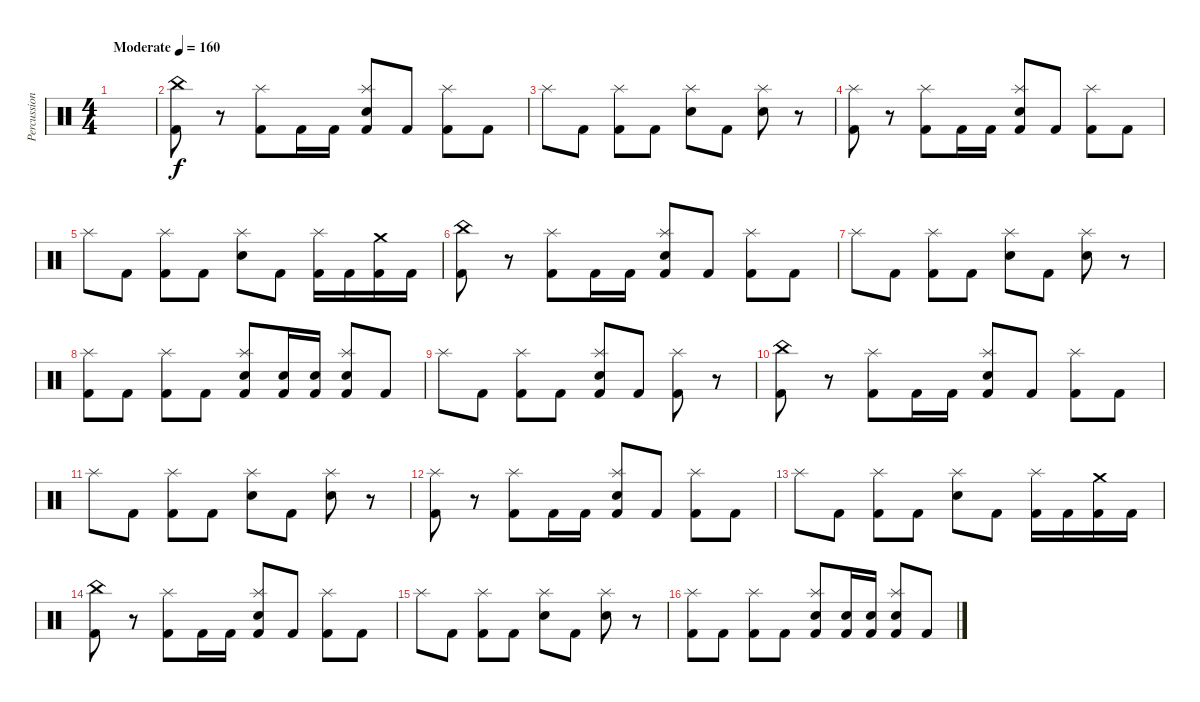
\track ("Percussion" "Percussion") {instrument percussion}
\staff {score}
\articulation defaults
\ts (4 4)
\tempo (160 "Moderate")
\clef neutral
\ks c
|
("China (hit)" "Kick (hit) 2").8 r.8 ("Splash (hit)" "Kick (hit) 2").8 "Kick (hit) 2".16 "Kick (hit) 2".16 ("Splash (hit)" "Electric Snare (hit)" "Kick (hit) 2").8 "Kick (hit) 2".8 ("Splash (hit)" "Kick (hit) 2").8 "Kick (hit) 2".8 |
"Splash (hit)".8 "Kick (hit) 2".8 ("Splash (hit)" "Kick (hit) 2").8 "Kick (hit) 2".8 ("Splash (hit)" "Electric Snare (hit)").8 "Kick (hit) 2".8 ("Splash (hit)" "Electric Snare (hit)").8 r.8 |
("Splash (hit)" "Kick (hit) 2").8 r.8 ("Splash (hit)" "Kick (hit) 2").8 "Kick (hit) 2".16 "Kick (hit) 2".16 ("Splash (hit)" "Electric Snare (hit)" "Kick (hit) 2").8 "Kick (hit) 2".8 ("Splash (hit)" "Kick (hit) 2").8 "Kick (hit) 2".8 |
"Splash (hit)".8 "Kick (hit) 2".8 ("Splash (hit)" "Kick (hit) 2").8 "Kick (hit) 2".8 ("Splash (hit)" "Electric Snare (hit)").8 "Kick (hit) 2".8 ("Splash (hit)" "Kick (hit) 2").16 "Kick (hit) 2".16 ("Crash medium (hit)" "Kick (hit) 2").16 "Kick (hit) 2".16 |
("China (hit)" "Kick (hit) 2").8 r.8 ("Splash (hit)" "Kick (hit) 2").8 "Kick (hit) 2".16 "Kick (hit) 2".16 ("Splash (hit)" "Electric Snare (hit)" "Kick (hit) 2").8 "Kick (hit) 2".8 ("Splash (hit)" "Kick (hit) 2").8 "Kick (hit) 2".8 |
"Splash (hit)".8 "Kick (hit) 2".8 ("Splash (hit)" "Kick (hit) 2").8 "Kick (hit) 2".8 ("Splash (hit)" "Electric Snare (hit)").8 "Kick (hit) 2".8 ("Splash (hit)" "Electric Snare (hit)").8 r.8 |
("Splash (hit)" "Kick (hit) 2").8 "Kick (hit) 2".8 ("Splash (hit)" "Kick (hit) 2").8 "Kick (hit) 2".8 ("Splash (hit)" "Electric Snare (hit)" "Kick (hit) 2").8 ("Electric Snare (hit)" "Kick (hit) 2").16 ("Electric Snare (hit)" "Kick (hit) 2").16 ("Splash (hit)" "Electric Snare (hit)" "Kick (hit) 2").8 "Kick (hit) 2".8 |
"Splash (hit)".8 "Kick (hit) 2".8 ("Splash (hit)" "Kick (hit) 2").8 "Kick (hit) 2".8 ("Splash (hit)" "Electric Snare (hit)" "Kick (hit) 2").8 "Kick (hit) 2".8 ("Splash (hit)" "Kick (hit) 2").8 r.8 |
("China (hit)" "Kick (hit) 2").8 r.8 ("Splash (hit)" "Kick (hit) 2").8 "Kick (hit) 2".16 "Kick (hit) 2".16 ("Splash (hit)" "Electric Snare (hit)" "Kick (hit) 2").8 "Kick (hit) 2".8 ("Splash (hit)" "Kick (hit) 2").8 "Kick (hit) 2".8 |
"Splash (hit)".8 "Kick (hit) 2".8 ("Splash (hit)" "Kick (hit) 2").8 "Kick (hit) 2".8 ("Splash (hit)" "Electric Snare (hit)").8 "Kick (hit) 2".8 ("Splash (hit)" "Electric Snare (hit)").8 r.8 |
("Splash (hit)" "Kick (hit) 2").8 r.8 ("Splash (hit)" "Kick (hit) 2").8 "Kick (hit) 2".16 "Kick (hit) 2".16 ("Splash (hit)" "Electric Snare (hit)" "Kick (hit) 2").8 "Kick (hit) 2".8 ("Splash (hit)" "Kick (hit) 2").8 "Kick (hit) 2".8 |
"Splash (hit)".8 "Kick (hit) 2".8 ("Splash (hit)" "Kick (hit) 2").8 "Kick (hit) 2".8 ("Splash (hit)" "Electric Snare (hit)").8 "Kick (hit) 2".8 ("Splash (hit)" "Kick (hit) 2").16 "Kick (hit) 2".16 ("Crash medium (hit)" "Kick (hit) 2").16 "Kick (hit) 2".16 |
("China (hit)" "Kick (hit) 2").8 r.8 ("Splash (hit)" "Kick (hit) 2").8 "Kick (hit) 2".16 "Kick (hit) 2".16 ("Splash (hit)" "Electric Snare (hit)" "Kick (hit) 2").8 "Kick (hit) 2".8 ("Splash (hit)" "Kick (hit) 2").8 "Kick (hit) 2".8 |
"Splash (hit)".8 "Kick (hit) 2".8 ("Splash (hit)" "Kick (hit) 2").8 "Kick (hit) 2".8 ("Splash (hit)" "Electric Snare (hit)").8 "Kick (hit) 2".8 ("Splash (hit)" "Electric Snare (hit)").8 r.8 |
("Splash (hit)" "Kick (hit) 2").8 "Kick (hit) 2".8 ("Splash (hit)" "Kick (hit) 2").8 "Kick (hit) 2".8 ("Splash (hit)" "Electric Snare (hit)" "Kick (hit) 2").8 ("Electric Snare (hit)" "Kick (hit) 2").16 ("Electric Snare (hit)" "Kick (hit) 2").16 ("Splash (hit)" "Electric Snare (hit)" "Kick (hit) 2").8 "Kick (hit) 2".8
